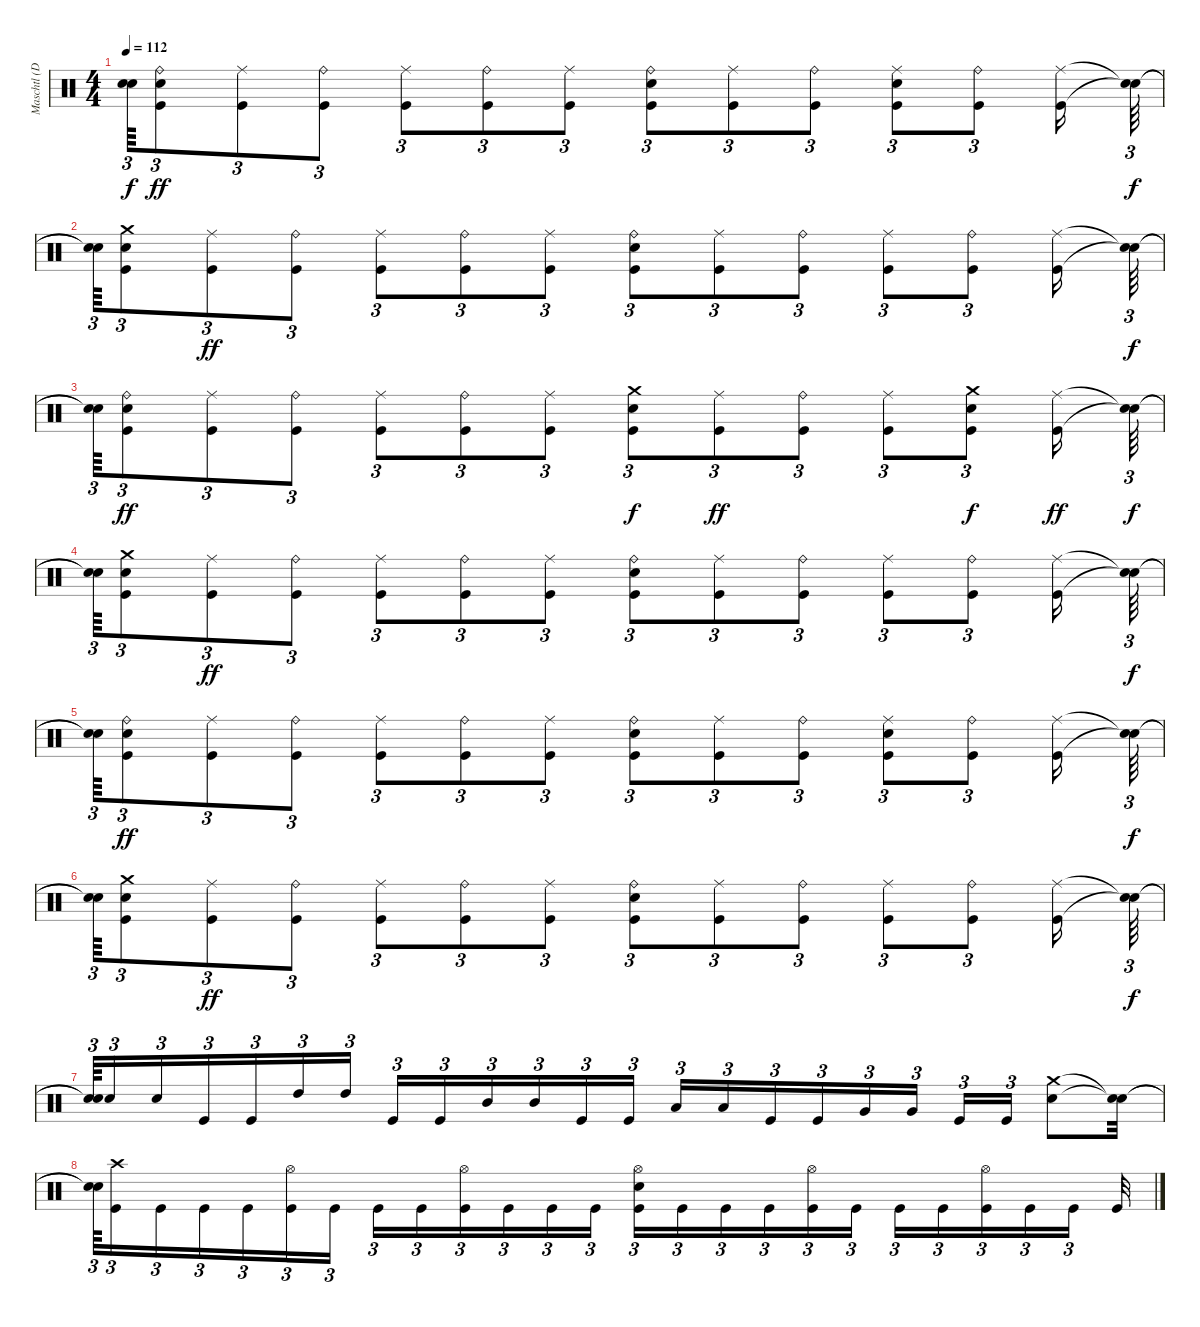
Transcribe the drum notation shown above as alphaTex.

\track ("Maschtl (Drums)" "Maschtl (D") {instrument percussion}
\staff {score}
\articulation defaults
\ts (4 4)
\tempo 112
\clef neutral
\ks c
("Snare (hit)"{t} "Snare (hit)"{t}).64{tu (3 2) dy f} ("Ride (bell)" "Electric Snare (hit)" "Kick (hit)").8{tu (3 2) dy ff} ("Ride (middle)" "Kick (hit)").8{tu (3 2)} ("Ride (bell)" "Kick (hit)").8{tu (3 2)} ("Ride (middle)" "Kick (hit)").8{tu (3 2)} ("Ride (bell)" "Kick (hit)").8{tu (3 2)} ("Ride (middle)" "Kick (hit)").8{tu (3 2)} ("Ride (bell)" "Electric Snare (hit)" "Kick (hit)").8{tu (3 2)} ("Ride (middle)" "Kick (hit)").8{tu (3 2)} ("Ride (bell)" "Kick (hit)").8{tu (3 2)} ("Ride (middle)" "Electric Snare (hit)" "Kick (hit)").8{tu (3 2)} ("Ride (bell)" "Kick (hit)").8{tu (3 2)} ("Ride (middle)" "Kick (hit)").16 ("Snare (hit)"{t} "Snare (hit)"{t}).64{tu (3 2) dy f} |
("Snare (hit)"{t} "Snare (hit)"{t}).64{tu (3 2)} ("Crash medium (hit)" "Electric Snare (hit)" "Kick (hit)").8{tu (3 2)} ("Ride (middle)" "Kick (hit)").8{tu (3 2) dy ff} ("Ride (bell)" "Kick (hit)").8{tu (3 2)} ("Ride (middle)" "Kick (hit)").8{tu (3 2)} ("Ride (bell)" "Kick (hit)").8{tu (3 2)} ("Ride (middle)" "Kick (hit)").8{tu (3 2)} ("Ride (bell)" "Electric Snare (hit)" "Kick (hit)").8{tu (3 2)} ("Ride (middle)" "Kick (hit)").8{tu (3 2)} ("Ride (bell)" "Kick (hit)").8{tu (3 2)} ("Ride (middle)" "Kick (hit)").8{tu (3 2)} ("Ride (bell)" "Kick (hit)").8{tu (3 2)} ("Ride (middle)" "Kick (hit)").16 ("Snare (hit)"{t} "Snare (hit)"{t}).64{tu (3 2) dy f} |
("Snare (hit)"{t} "Snare (hit)"{t}).64{tu (3 2)} ("Ride (bell)" "Electric Snare (hit)" "Kick (hit)").8{tu (3 2) dy ff} ("Ride (middle)" "Kick (hit)").8{tu (3 2)} ("Ride (bell)" "Kick (hit)").8{tu (3 2)} ("Ride (middle)" "Kick (hit)").8{tu (3 2)} ("Ride (bell)" "Kick (hit)").8{tu (3 2)} ("Ride (middle)" "Kick (hit)").8{tu (3 2)} ("Crash medium (hit)" "Electric Snare (hit)" "Kick (hit)").8{tu (3 2) dy f} ("Ride (middle)" "Kick (hit)").8{tu (3 2) dy ff} ("Ride (bell)" "Kick (hit)").8{tu (3 2)} ("Ride (middle)" "Kick (hit)").8{tu (3 2)} ("Crash medium (hit)" "Electric Snare (hit)" "Kick (hit)").8{tu (3 2) dy f} ("Ride (middle)" "Kick (hit)").16{dy ff} ("Snare (hit)"{t} "Snare (hit)"{t}).64{tu (3 2) dy f} |
("Snare (hit)"{t} "Snare (hit)"{t}).64{tu (3 2)} ("Crash medium (hit)" "Electric Snare (hit)" "Kick (hit)").8{tu (3 2)} ("Ride (middle)" "Kick (hit)").8{tu (3 2) dy ff} ("Ride (bell)" "Kick (hit)").8{tu (3 2)} ("Ride (middle)" "Kick (hit)").8{tu (3 2)} ("Ride (bell)" "Kick (hit)").8{tu (3 2)} ("Ride (middle)" "Kick (hit)").8{tu (3 2)} ("Ride (bell)" "Electric Snare (hit)" "Kick (hit)").8{tu (3 2)} ("Ride (middle)" "Kick (hit)").8{tu (3 2)} ("Ride (bell)" "Kick (hit)").8{tu (3 2)} ("Ride (middle)" "Kick (hit)").8{tu (3 2)} ("Ride (bell)" "Kick (hit)").8{tu (3 2)} ("Ride (middle)" "Kick (hit)").16 ("Snare (hit)"{t} "Snare (hit)"{t}).64{tu (3 2) dy f} |
("Snare (hit)"{t} "Snare (hit)"{t}).64{tu (3 2)} ("Ride (bell)" "Electric Snare (hit)" "Kick (hit)").8{tu (3 2) dy ff} ("Ride (middle)" "Kick (hit)").8{tu (3 2)} ("Ride (bell)" "Kick (hit)").8{tu (3 2)} ("Ride (middle)" "Kick (hit)").8{tu (3 2)} ("Ride (bell)" "Kick (hit)").8{tu (3 2)} ("Ride (middle)" "Kick (hit)").8{tu (3 2)} ("Ride (bell)" "Electric Snare (hit)" "Kick (hit)").8{tu (3 2)} ("Ride (middle)" "Kick (hit)").8{tu (3 2)} ("Ride (bell)" "Kick (hit)").8{tu (3 2)} ("Ride (middle)" "Electric Snare (hit)" "Kick (hit)").8{tu (3 2)} ("Ride (bell)" "Kick (hit)").8{tu (3 2)} ("Ride (middle)" "Kick (hit)").16 ("Snare (hit)"{t} "Snare (hit)"{t}).64{tu (3 2) dy f} |
("Snare (hit)"{t} "Snare (hit)"{t}).64{tu (3 2)} ("Crash medium (hit)" "Electric Snare (hit)" "Kick (hit)").8{tu (3 2)} ("Ride (middle)" "Kick (hit)").8{tu (3 2) dy ff} ("Ride (bell)" "Kick (hit)").8{tu (3 2)} ("Ride (middle)" "Kick (hit)").8{tu (3 2)} ("Ride (bell)" "Kick (hit)").8{tu (3 2)} ("Ride (middle)" "Kick (hit)").8{tu (3 2)} ("Ride (bell)" "Electric Snare (hit)" "Kick (hit)").8{tu (3 2)} ("Ride (middle)" "Kick (hit)").8{tu (3 2)} ("Ride (bell)" "Kick (hit)").8{tu (3 2)} ("Ride (middle)" "Kick (hit)").8{tu (3 2)} ("Ride (bell)" "Kick (hit)").8{tu (3 2)} ("Ride (middle)" "Kick (hit)").16 ("Snare (hit)"{t} "Snare (hit)"{t}).64{tu (3 2) dy f} |
("Snare (hit)"{t} "Snare (hit)"{t}).64{tu (3 2)} "Electric Snare (hit)".16{tu (3 2)} "Electric Snare (hit)".16{tu (3 2)} "Kick (hit)".16{tu (3 2)} "Kick (hit)".16{tu (3 2)} "High Tom (hit)".16{tu (3 2)} "High Tom (hit)".16{tu (3 2)} "Kick (hit)".16{tu (3 2)} "Kick (hit)".16{tu (3 2)} "Mid Tom (hit)".16{tu (3 2)} "Mid Tom (hit)".16{tu (3 2)} "Kick (hit)".16{tu (3 2)} "Kick (hit)".16{tu (3 2)} "Low Tom (hit)".16{tu (3 2)} "Low Tom (hit)".16{tu (3 2)} "Kick (hit)".16{tu (3 2)} "Kick (hit)".16{tu (3 2)} "Very Low Tom (hit)".16{tu (3 2)} "Very Low Tom (hit)".16{tu (3 2)} "Kick (hit)".16{tu (3 2)} "Kick (hit)".16{tu (3 2)} ("Crash medium (hit)" "Electric Snare (hit)").8 ("Snare (hit)"{t} "Snare (hit)"{t}).32 |
("Snare (hit)"{t} "Snare (hit)"{t}).64{tu (3 2)} ("Crash high (hit)" "Kick (hit)").16{tu (3 2)} "Kick (hit)".16{tu (3 2)} "Kick (hit)".16{tu (3 2)} "Kick (hit)".16{tu (3 2)} ("Hi-Hat (open)" "Kick (hit)").16{tu (3 2)} "Kick (hit)".16{tu (3 2)} "Kick (hit)".16{tu (3 2)} "Kick (hit)".16{tu (3 2)} ("Hi-Hat (open)" "Kick (hit)").16{tu (3 2)} "Kick (hit)".16{tu (3 2)} "Kick (hit)".16{tu (3 2)} "Kick (hit)".16{tu (3 2)} ("Hi-Hat (open)" "Electric Snare (hit)" "Kick (hit)").16{tu (3 2)} "Kick (hit)".16{tu (3 2)} "Kick (hit)".16{tu (3 2)} "Kick (hit)".16{tu (3 2)} ("Hi-Hat (open)" "Kick (hit)").16{tu (3 2)} "Kick (hit)".16{tu (3 2)} "Kick (hit)".16{tu (3 2)} "Kick (hit)".16{tu (3 2)} ("Hi-Hat (open)" "Kick (hit)").16{tu (3 2)} "Kick (hit)".16{tu (3 2)} "Kick (hit)".16{tu (3 2)} "Kick (hit)".32
